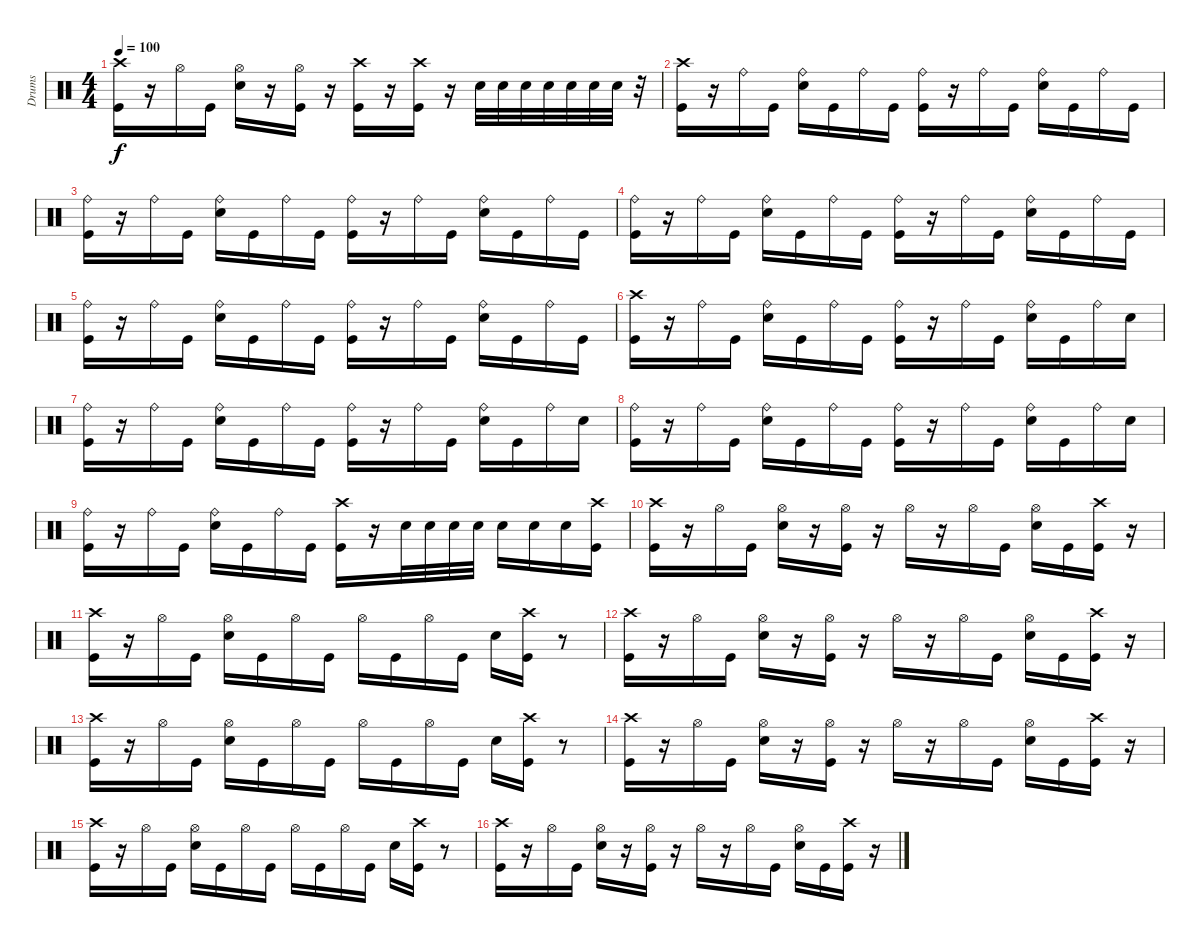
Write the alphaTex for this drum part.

\track ("Drums" "Drums") {instrument percussion}
\staff {score}
\articulation defaults
\ts (4 4)
\tempo 100
\clef neutral
\ks c
("Kick (hit)" "Crash high (hit)").16{dy f} r.16 "Hi-Hat (open)".16 "Kick (hit)".16 ("Electric Snare (hit)" "Hi-Hat (open)").16 r.16 ("Kick (hit)" "Hi-Hat (open)").16 r.16 ("Kick (hit)" "Crash high (hit)").16 r.16 ("Kick (hit)" "Crash high (hit)").16 r.16 "Electric Snare (hit)".32 "Electric Snare (hit)".32 "Electric Snare (hit)".32 "Electric Snare (hit)".32 "Electric Snare (hit)".32 "Electric Snare (hit)".32 "Electric Snare (hit)".32 r.32 |
("Kick (hit)" "Crash high (hit)").16 r.16 "Ride (bell)".16 "Kick (hit)".16 ("Electric Snare (hit)" "Ride (bell)").16 "Kick (hit)".16 "Ride (bell)".16 "Kick (hit)".16 ("Kick (hit)" "Ride (bell)").16 r.16 "Ride (bell)".16 "Kick (hit)".16 ("Electric Snare (hit)" "Ride (bell)").16 "Kick (hit)".16 "Ride (bell)".16 "Kick (hit)".16 |
("Kick (hit)" "Ride (bell)").16 r.16 "Ride (bell)".16 "Kick (hit)".16 ("Electric Snare (hit)" "Ride (bell)").16 "Kick (hit)".16 "Ride (bell)".16 "Kick (hit)".16 ("Kick (hit)" "Ride (bell)").16 r.16 "Ride (bell)".16 "Kick (hit)".16 ("Electric Snare (hit)" "Ride (bell)").16 "Kick (hit)".16 "Ride (bell)".16 "Kick (hit)".16 |
("Kick (hit)" "Ride (bell)").16 r.16 "Ride (bell)".16 "Kick (hit)".16 ("Electric Snare (hit)" "Ride (bell)").16 "Kick (hit)".16 "Ride (bell)".16 "Kick (hit)".16 ("Kick (hit)" "Ride (bell)").16 r.16 "Ride (bell)".16 "Kick (hit)".16 ("Electric Snare (hit)" "Ride (bell)").16 "Kick (hit)".16 "Ride (bell)".16 "Kick (hit)".16 |
("Kick (hit)" "Ride (bell)").16 r.16 "Ride (bell)".16 "Kick (hit)".16 ("Electric Snare (hit)" "Ride (bell)").16 "Kick (hit)".16 "Ride (bell)".16 "Kick (hit)".16 ("Kick (hit)" "Ride (bell)").16 r.16 "Ride (bell)".16 "Kick (hit)".16 ("Electric Snare (hit)" "Ride (bell)").16 "Kick (hit)".16 "Ride (bell)".16 "Kick (hit)".16 |
("Kick (hit)" "Crash high (hit)").16 r.16 "Ride (bell)".16 "Kick (hit)".16 ("Electric Snare (hit)" "Ride (bell)").16 "Kick (hit)".16 "Ride (bell)".16 "Kick (hit)".16 ("Kick (hit)" "Ride (bell)").16 r.16 "Ride (bell)".16 "Kick (hit)".16 ("Electric Snare (hit)" "Ride (bell)").16 "Kick (hit)".16 "Ride (bell)".16 "Electric Snare (hit)".16 |
("Kick (hit)" "Ride (bell)").16 r.16 "Ride (bell)".16 "Kick (hit)".16 ("Electric Snare (hit)" "Ride (bell)").16 "Kick (hit)".16 "Ride (bell)".16 "Kick (hit)".16 ("Kick (hit)" "Ride (bell)").16 r.16 "Ride (bell)".16 "Kick (hit)".16 ("Electric Snare (hit)" "Ride (bell)").16 "Kick (hit)".16 "Ride (bell)".16 "Electric Snare (hit)".16 |
("Kick (hit)" "Ride (bell)").16 r.16 "Ride (bell)".16 "Kick (hit)".16 ("Electric Snare (hit)" "Ride (bell)").16 "Kick (hit)".16 "Ride (bell)".16 "Kick (hit)".16 ("Kick (hit)" "Ride (bell)").16 r.16 "Ride (bell)".16 "Kick (hit)".16 ("Electric Snare (hit)" "Ride (bell)").16 "Kick (hit)".16 "Ride (bell)".16 "Electric Snare (hit)".16 |
("Kick (hit)" "Ride (bell)").16 r.16 "Ride (bell)".16 "Kick (hit)".16 ("Electric Snare (hit)" "Ride (bell)").16 "Kick (hit)".16 "Ride (bell)".16 "Kick (hit)".16 ("Kick (hit)" "Crash high (hit)").16 r.16 "Electric Snare (hit)".32 "Electric Snare (hit)".32 "Electric Snare (hit)".32 "Electric Snare (hit)".32 "Electric Snare (hit)".16 "Electric Snare (hit)".16 "Electric Snare (hit)".16 ("Kick (hit)" "Crash high (hit)").16 |
("Kick (hit)" "Crash high (hit)").16 r.16 "Hi-Hat (open)".16 "Kick (hit)".16 ("Electric Snare (hit)" "Hi-Hat (open)").16 r.16 ("Kick (hit)" "Hi-Hat (open)").16 r.16 "Hi-Hat (open)".16 r.16 "Hi-Hat (open)".16 "Kick (hit)".16 ("Electric Snare (hit)" "Hi-Hat (open)").16 "Kick (hit)".16 ("Kick (hit)" "Crash high (hit)").16 r.16 |
("Kick (hit)" "Crash high (hit)").16 r.16 "Hi-Hat (open)".16 "Kick (hit)".16 ("Electric Snare (hit)" "Hi-Hat (open)").16 "Kick (hit)".16 "Hi-Hat (open)".16 "Kick (hit)".16 "Hi-Hat (open)".16 "Kick (hit)".16 "Hi-Hat (open)".16 "Kick (hit)".16 "Electric Snare (hit)".16 ("Kick (hit)" "Crash high (hit)").16 r.8 |
("Kick (hit)" "Crash high (hit)").16 r.16 "Hi-Hat (open)".16 "Kick (hit)".16 ("Electric Snare (hit)" "Hi-Hat (open)").16 r.16 ("Kick (hit)" "Hi-Hat (open)").16 r.16 "Hi-Hat (open)".16 r.16 "Hi-Hat (open)".16 "Kick (hit)".16 ("Electric Snare (hit)" "Hi-Hat (open)").16 "Kick (hit)".16 ("Kick (hit)" "Crash high (hit)").16 r.16 |
("Kick (hit)" "Crash high (hit)").16 r.16 "Hi-Hat (open)".16 "Kick (hit)".16 ("Electric Snare (hit)" "Hi-Hat (open)").16 "Kick (hit)".16 "Hi-Hat (open)".16 "Kick (hit)".16 "Hi-Hat (open)".16 "Kick (hit)".16 "Hi-Hat (open)".16 "Kick (hit)".16 "Electric Snare (hit)".16 ("Kick (hit)" "Crash high (hit)").16 r.8 |
("Kick (hit)" "Crash high (hit)").16 r.16 "Hi-Hat (open)".16 "Kick (hit)".16 ("Electric Snare (hit)" "Hi-Hat (open)").16 r.16 ("Kick (hit)" "Hi-Hat (open)").16 r.16 "Hi-Hat (open)".16 r.16 "Hi-Hat (open)".16 "Kick (hit)".16 ("Electric Snare (hit)" "Hi-Hat (open)").16 "Kick (hit)".16 ("Kick (hit)" "Crash high (hit)").16 r.16 |
("Kick (hit)" "Crash high (hit)").16 r.16 "Hi-Hat (open)".16 "Kick (hit)".16 ("Electric Snare (hit)" "Hi-Hat (open)").16 "Kick (hit)".16 "Hi-Hat (open)".16 "Kick (hit)".16 "Hi-Hat (open)".16 "Kick (hit)".16 "Hi-Hat (open)".16 "Kick (hit)".16 "Electric Snare (hit)".16 ("Kick (hit)" "Crash high (hit)").16 r.8 |
("Kick (hit)" "Crash high (hit)").16 r.16 "Hi-Hat (open)".16 "Kick (hit)".16 ("Electric Snare (hit)" "Hi-Hat (open)").16 r.16 ("Kick (hit)" "Hi-Hat (open)").16 r.16 "Hi-Hat (open)".16 r.16 "Hi-Hat (open)".16 "Kick (hit)".16 ("Electric Snare (hit)" "Hi-Hat (open)").16 "Kick (hit)".16 ("Kick (hit)" "Crash high (hit)").16 r.16
